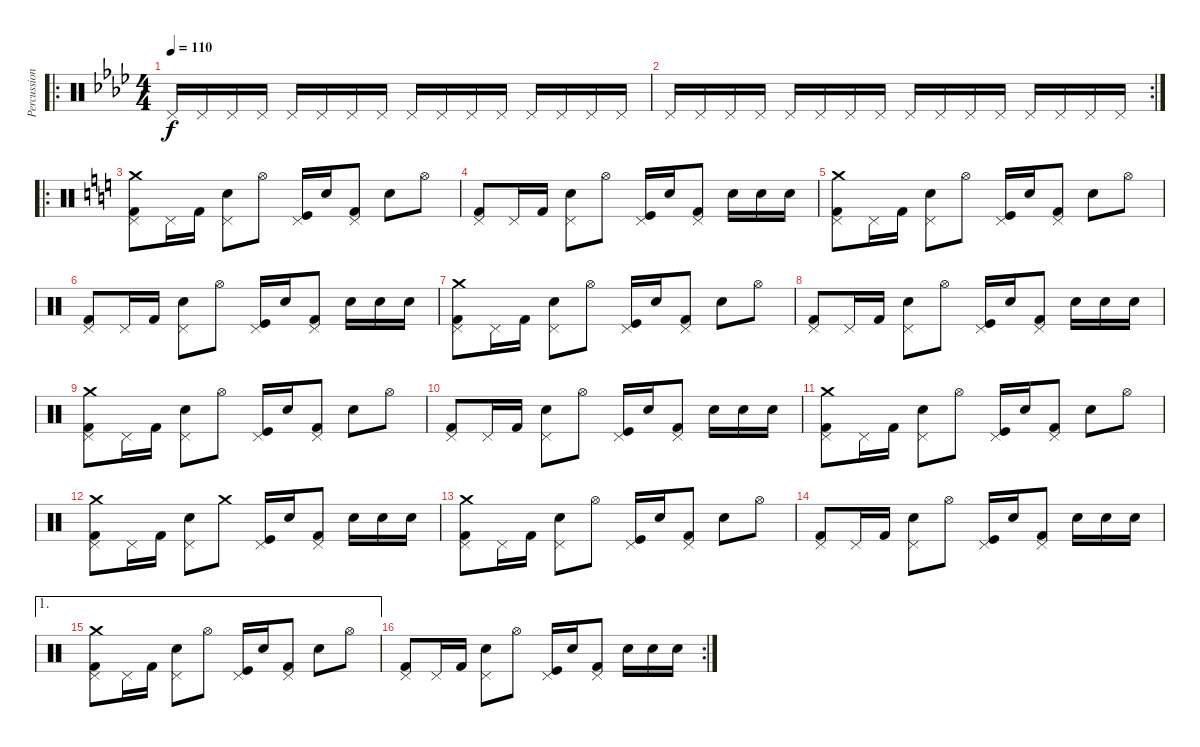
\track ("Percussions" "Percussion") {instrument percussion}
\staff {score}
\articulation defaults
\ro
\ts (4 4)
\tempo 110
\clef neutral
\ks ab "Pedal Hi-Hat (hit)".16{dy f} "Pedal Hi-Hat (hit)".16 "Pedal Hi-Hat (hit)".16 "Pedal Hi-Hat (hit)".16 "Pedal Hi-Hat (hit)".16 "Pedal Hi-Hat (hit)".16 "Pedal Hi-Hat (hit)".16 "Pedal Hi-Hat (hit)".16 "Pedal Hi-Hat (hit)".16 "Pedal Hi-Hat (hit)".16 "Pedal Hi-Hat (hit)".16 "Pedal Hi-Hat (hit)".16 "Pedal Hi-Hat (hit)".16 "Pedal Hi-Hat (hit)".16 "Pedal Hi-Hat (hit)".16 "Pedal Hi-Hat (hit)".16
|
\rc 2 "Pedal Hi-Hat (hit)".16 "Pedal Hi-Hat (hit)".16 "Pedal Hi-Hat (hit)".16 "Pedal Hi-Hat (hit)".16 "Pedal Hi-Hat (hit)".16 "Pedal Hi-Hat (hit)".16 "Pedal Hi-Hat (hit)".16 "Pedal Hi-Hat (hit)".16 "Pedal Hi-Hat (hit)".16 "Pedal Hi-Hat (hit)".16 "Pedal Hi-Hat (hit)".16 "Pedal Hi-Hat (hit)".16 "Pedal Hi-Hat (hit)".16 "Pedal Hi-Hat (hit)".16 "Pedal Hi-Hat (hit)".16 "Pedal Hi-Hat (hit)".16
|
\ro
\ks c
("Kick (hit) 2" "Pedal Hi-Hat (hit)" "Crash medium (hit)").8 "Pedal Hi-Hat (hit)".16 "Kick (hit) 2".16 ("Electric Snare (hit)" "Pedal Hi-Hat (hit)").8 "Hi-Hat (open)".8 ("Kick (hit)" "Pedal Hi-Hat (hit)").16 "Electric Snare (hit)".16 ("Kick (hit) 2" "Pedal Hi-Hat (hit)").8 "Electric Snare (hit)".8 "Hi-Hat (open)".8 |
("Kick (hit) 2" "Pedal Hi-Hat (hit)").8 "Pedal Hi-Hat (hit)".16 "Kick (hit) 2".16 ("Electric Snare (hit)" "Pedal Hi-Hat (hit)").8 "Hi-Hat (open)".8 ("Kick (hit)" "Pedal Hi-Hat (hit)").16 "Electric Snare (hit)".16 ("Kick (hit) 2" "Pedal Hi-Hat (hit)").8 "Electric Snare (hit)".16 "Electric Snare (hit)".16 "Electric Snare (hit)".16 |
("Kick (hit) 2" "Pedal Hi-Hat (hit)" "Crash medium (hit)").8 "Pedal Hi-Hat (hit)".16 "Kick (hit) 2".16 ("Electric Snare (hit)" "Pedal Hi-Hat (hit)").8 "Hi-Hat (open)".8 ("Kick (hit)" "Pedal Hi-Hat (hit)").16 "Electric Snare (hit)".16 ("Kick (hit) 2" "Pedal Hi-Hat (hit)").8 "Electric Snare (hit)".8 "Hi-Hat (open)".8 |
("Kick (hit) 2" "Pedal Hi-Hat (hit)").8 "Pedal Hi-Hat (hit)".16 "Kick (hit) 2".16 ("Electric Snare (hit)" "Pedal Hi-Hat (hit)").8 "Hi-Hat (open)".8 ("Kick (hit)" "Pedal Hi-Hat (hit)").16 "Electric Snare (hit)".16 ("Kick (hit) 2" "Pedal Hi-Hat (hit)").8 "Electric Snare (hit)".16 "Electric Snare (hit)".16 "Electric Snare (hit)".16 |
("Kick (hit) 2" "Pedal Hi-Hat (hit)" "Crash medium (hit)").8 "Pedal Hi-Hat (hit)".16 "Kick (hit) 2".16 ("Electric Snare (hit)" "Pedal Hi-Hat (hit)").8 "Hi-Hat (open)".8 ("Kick (hit)" "Pedal Hi-Hat (hit)").16 "Electric Snare (hit)".16 ("Kick (hit) 2" "Pedal Hi-Hat (hit)").8 "Electric Snare (hit)".8 "Hi-Hat (open)".8 |
("Kick (hit) 2" "Pedal Hi-Hat (hit)").8 "Pedal Hi-Hat (hit)".16 "Kick (hit) 2".16 ("Electric Snare (hit)" "Pedal Hi-Hat (hit)").8 "Hi-Hat (open)".8 ("Kick (hit)" "Pedal Hi-Hat (hit)").16 "Electric Snare (hit)".16 ("Kick (hit) 2" "Pedal Hi-Hat (hit)").8 "Electric Snare (hit)".16 "Electric Snare (hit)".16 "Electric Snare (hit)".16 |
("Kick (hit) 2" "Pedal Hi-Hat (hit)" "Crash medium (hit)").8 "Pedal Hi-Hat (hit)".16 "Kick (hit) 2".16 ("Electric Snare (hit)" "Pedal Hi-Hat (hit)").8 "Hi-Hat (open)".8 ("Kick (hit)" "Pedal Hi-Hat (hit)").16 "Electric Snare (hit)".16 ("Kick (hit) 2" "Pedal Hi-Hat (hit)").8 "Electric Snare (hit)".8 "Hi-Hat (open)".8 |
("Kick (hit) 2" "Pedal Hi-Hat (hit)").8 "Pedal Hi-Hat (hit)".16 "Kick (hit) 2".16 ("Electric Snare (hit)" "Pedal Hi-Hat (hit)").8 "Hi-Hat (open)".8 ("Kick (hit)" "Pedal Hi-Hat (hit)").16 "Electric Snare (hit)".16 ("Kick (hit) 2" "Pedal Hi-Hat (hit)").8 "Electric Snare (hit)".16 "Electric Snare (hit)".16 "Electric Snare (hit)".16 |
("Kick (hit) 2" "Pedal Hi-Hat (hit)" "Crash medium (hit)").8 "Pedal Hi-Hat (hit)".16 "Kick (hit) 2".16 ("Electric Snare (hit)" "Pedal Hi-Hat (hit)").8 "Hi-Hat (open)".8 ("Kick (hit)" "Pedal Hi-Hat (hit)").16 "Electric Snare (hit)".16 ("Kick (hit) 2" "Pedal Hi-Hat (hit)").8 "Electric Snare (hit)".8 "Hi-Hat (open)".8 |
("Kick (hit) 2" "Pedal Hi-Hat (hit)" "Crash medium (hit)").8 "Pedal Hi-Hat (hit)".16 "Kick (hit) 2".16 ("Electric Snare (hit)" "Pedal Hi-Hat (hit)").8 "Crash medium (hit)".8 ("Kick (hit)" "Pedal Hi-Hat (hit)").16 "Electric Snare (hit)".16 ("Kick (hit) 2" "Pedal Hi-Hat (hit)").8 "Electric Snare (hit)".16 "Electric Snare (hit)".16 "Electric Snare (hit)".16 |
("Kick (hit) 2" "Pedal Hi-Hat (hit)" "Crash medium (hit)").8 "Pedal Hi-Hat (hit)".16 "Kick (hit) 2".16 ("Electric Snare (hit)" "Pedal Hi-Hat (hit)").8 "Hi-Hat (open)".8 ("Kick (hit)" "Pedal Hi-Hat (hit)").16 "Electric Snare (hit)".16 ("Kick (hit) 2" "Pedal Hi-Hat (hit)").8 "Electric Snare (hit)".8 "Hi-Hat (open)".8 |
("Kick (hit) 2" "Pedal Hi-Hat (hit)").8 "Pedal Hi-Hat (hit)".16 "Kick (hit) 2".16 ("Electric Snare (hit)" "Pedal Hi-Hat (hit)").8 "Hi-Hat (open)".8 ("Kick (hit)" "Pedal Hi-Hat (hit)").16 "Electric Snare (hit)".16 ("Kick (hit) 2" "Pedal Hi-Hat (hit)").8 "Electric Snare (hit)".16 "Electric Snare (hit)".16 "Electric Snare (hit)".16 |
\ae 1
("Kick (hit) 2" "Pedal Hi-Hat (hit)" "Crash medium (hit)").8 "Pedal Hi-Hat (hit)".16 "Kick (hit) 2".16 ("Electric Snare (hit)" "Pedal Hi-Hat (hit)").8 "Hi-Hat (open)".8 ("Kick (hit)" "Pedal Hi-Hat (hit)").16 "Electric Snare (hit)".16 ("Kick (hit) 2" "Pedal Hi-Hat (hit)").8 "Electric Snare (hit)".8 "Hi-Hat (open)".8 |
\rc 2
("Kick (hit) 2" "Pedal Hi-Hat (hit)").8 "Pedal Hi-Hat (hit)".16 "Kick (hit) 2".16 ("Electric Snare (hit)" "Pedal Hi-Hat (hit)").8 "Hi-Hat (open)".8 ("Kick (hit)" "Pedal Hi-Hat (hit)").16 "Electric Snare (hit)".16 ("Kick (hit) 2" "Pedal Hi-Hat (hit)").8 "Electric Snare (hit)".16 "Electric Snare (hit)".16 "Electric Snare (hit)".16
